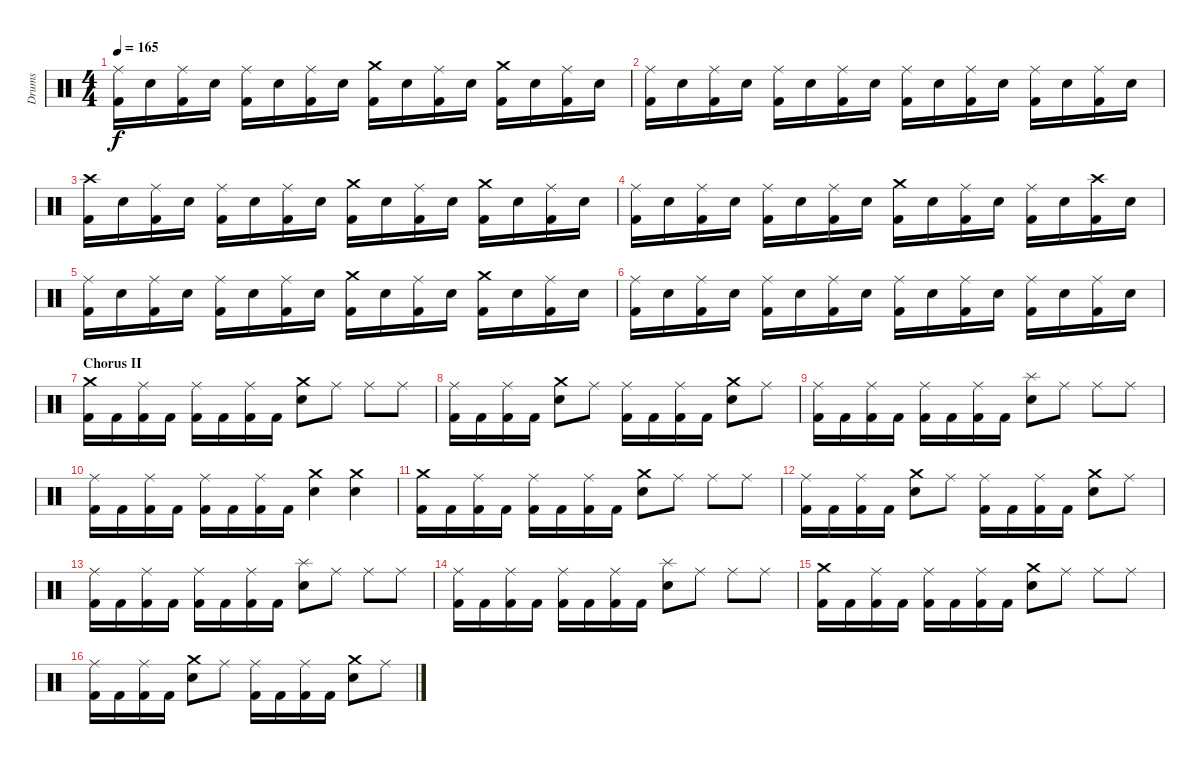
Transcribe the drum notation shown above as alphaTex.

\track ("Drums" "Drums") {instrument percussion}
\staff {score}
\articulation defaults
\ts (4 4)
\tempo 165
\clef neutral
\ks c
("Kick (hit) 2" "Ride (middle)").16{dy f} "Electric Snare (hit)".16 ("Kick (hit) 2" "Ride (middle)").16 "Electric Snare (hit)".16 ("Kick (hit) 2" "Ride (middle)").16 "Electric Snare (hit)".16 ("Kick (hit) 2" "Ride (middle)").16 "Electric Snare (hit)".16 ("Kick (hit) 2" "Crash medium (hit)").16 "Electric Snare (hit)".16 ("Kick (hit) 2" "Ride (middle)").16 "Electric Snare (hit)".16 ("Kick (hit) 2" "Crash medium (hit)").16 "Electric Snare (hit)".16 ("Kick (hit) 2" "Ride (middle)").16 "Electric Snare (hit)".16 |
("Kick (hit) 2" "Ride (middle)").16 "Electric Snare (hit)".16 ("Kick (hit) 2" "Ride (middle)").16 "Electric Snare (hit)".16 ("Kick (hit) 2" "Ride (middle)").16 "Electric Snare (hit)".16 ("Kick (hit) 2" "Ride (middle)").16 "Electric Snare (hit)".16 ("Kick (hit) 2" "Ride (middle)").16 "Electric Snare (hit)".16 ("Kick (hit) 2" "Ride (middle)").16 "Electric Snare (hit)".16 ("Kick (hit) 2" "Ride (middle)").16 "Electric Snare (hit)".16 ("Kick (hit) 2" "Ride (middle)").16 "Electric Snare (hit)".16 |
("Kick (hit) 2" "Crash high (hit)").16 "Electric Snare (hit)".16 ("Kick (hit) 2" "Ride (middle)").16 "Electric Snare (hit)".16 ("Kick (hit) 2" "Ride (middle)").16 "Electric Snare (hit)".16 ("Kick (hit) 2" "Ride (middle)").16 "Electric Snare (hit)".16 ("Kick (hit) 2" "Crash medium (hit)").16 "Electric Snare (hit)".16 ("Kick (hit) 2" "Ride (middle)").16 "Electric Snare (hit)".16 ("Kick (hit) 2" "Crash medium (hit)").16 "Electric Snare (hit)".16 ("Kick (hit) 2" "Ride (middle)").16 "Electric Snare (hit)".16 |
("Kick (hit) 2" "Ride (middle)").16 "Electric Snare (hit)".16 ("Kick (hit) 2" "Ride (middle)").16 "Electric Snare (hit)".16 ("Kick (hit) 2" "Ride (middle)").16 "Electric Snare (hit)".16 ("Kick (hit) 2" "Ride (middle)").16 "Electric Snare (hit)".16 ("Kick (hit) 2" "Crash medium (hit)").16 "Electric Snare (hit)".16 ("Kick (hit) 2" "Ride (middle)").16 "Electric Snare (hit)".16 ("Kick (hit) 2" "Ride (middle)").16 "Electric Snare (hit)".16 ("Kick (hit) 2" "Crash high (hit)").16 "Electric Snare (hit)".16 |
("Kick (hit) 2" "Ride (middle)").16 "Electric Snare (hit)".16 ("Kick (hit) 2" "Ride (middle)").16 "Electric Snare (hit)".16 ("Kick (hit) 2" "Ride (middle)").16 "Electric Snare (hit)".16 ("Kick (hit) 2" "Ride (middle)").16 "Electric Snare (hit)".16 ("Kick (hit) 2" "Crash medium (hit)").16 "Electric Snare (hit)".16 ("Kick (hit) 2" "Ride (middle)").16 "Electric Snare (hit)".16 ("Kick (hit) 2" "Crash medium (hit)").16 "Electric Snare (hit)".16 ("Kick (hit) 2" "Ride (middle)").16 "Electric Snare (hit)".16 |
("Kick (hit) 2" "Ride (middle)").16 "Electric Snare (hit)".16 ("Kick (hit) 2" "Ride (middle)").16 "Electric Snare (hit)".16 ("Kick (hit) 2" "Ride (middle)").16 "Electric Snare (hit)".16 ("Kick (hit) 2" "Ride (middle)").16 "Electric Snare (hit)".16 ("Kick (hit) 2" "Ride (middle)").16 "Electric Snare (hit)".16 ("Kick (hit) 2" "Ride (middle)").16 "Electric Snare (hit)".16 ("Kick (hit) 2" "Ride (middle)").16 "Electric Snare (hit)".16 ("Kick (hit) 2" "Ride (middle)").16 "Electric Snare (hit)".16 |
\section ("" "Chorus II")
("Kick (hit) 2" "Crash medium (hit)").16 "Kick (hit) 2".16 ("Kick (hit) 2" "Ride (middle)").16 "Kick (hit) 2".16 ("Kick (hit) 2" "Ride (middle)").16 "Kick (hit) 2".16 ("Kick (hit) 2" "Ride (middle)").16 "Kick (hit) 2".16 ("Electric Snare (hit)" "Crash medium (hit)").8 "Ride (middle)".8 "Ride (middle)".8 "Ride (middle)".8 |
("Kick (hit) 2" "Ride (middle)").16 "Kick (hit) 2".16 ("Kick (hit) 2" "Ride (middle)").16 "Kick (hit) 2".16 ("Electric Snare (hit)" "Crash medium (hit)").8 "Ride (middle)".8 ("Kick (hit) 2" "Ride (middle)").16 "Kick (hit) 2".16 ("Kick (hit) 2" "Ride (middle)").16 "Kick (hit) 2".16 ("Electric Snare (hit)" "Crash medium (hit)").8 "Ride (middle)".8 |
("Kick (hit) 2" "Ride (middle)").16 "Kick (hit) 2".16 ("Kick (hit) 2" "Ride (middle)").16 "Kick (hit) 2".16 ("Kick (hit) 2" "Ride (middle)").16 "Kick (hit) 2".16 ("Kick (hit) 2" "Ride (middle)").16 "Kick (hit) 2".16 ("Electric Snare (hit)" "Splash (hit)").8 "Ride (middle)".8 "Ride (middle)".8 "Ride (middle)".8 |
("Kick (hit) 2" "Ride (middle)").16 "Kick (hit) 2".16 ("Kick (hit) 2" "Ride (middle)").16 "Kick (hit) 2".16 ("Kick (hit) 2" "Ride (middle)").16 "Kick (hit) 2".16 ("Kick (hit) 2" "Ride (middle)").16 "Kick (hit) 2".16 ("Electric Snare (hit)" "Crash medium (hit)").4 ("Electric Snare (hit)" "Crash medium (hit)").4 |
("Kick (hit) 2" "Crash medium (hit)").16 "Kick (hit) 2".16 ("Kick (hit) 2" "Ride (middle)").16 "Kick (hit) 2".16 ("Kick (hit) 2" "Ride (middle)").16 "Kick (hit) 2".16 ("Kick (hit) 2" "Ride (middle)").16 "Kick (hit) 2".16 ("Electric Snare (hit)" "Crash medium (hit)").8 "Ride (middle)".8 "Ride (middle)".8 "Ride (middle)".8 |
("Kick (hit) 2" "Ride (middle)").16 "Kick (hit) 2".16 ("Kick (hit) 2" "Ride (middle)").16 "Kick (hit) 2".16 ("Electric Snare (hit)" "Crash medium (hit)").8 "Ride (middle)".8 ("Kick (hit) 2" "Ride (middle)").16 "Kick (hit) 2".16 ("Kick (hit) 2" "Ride (middle)").16 "Kick (hit) 2".16 ("Electric Snare (hit)" "Crash medium (hit)").8 "Ride (middle)".8 |
("Kick (hit) 2" "Ride (middle)").16 "Kick (hit) 2".16 ("Kick (hit) 2" "Ride (middle)").16 "Kick (hit) 2".16 ("Kick (hit) 2" "Ride (middle)").16 "Kick (hit) 2".16 ("Kick (hit) 2" "Ride (middle)").16 "Kick (hit) 2".16 ("Electric Snare (hit)" "Splash (hit)").8 "Ride (middle)".8 "Ride (middle)".8 "Ride (middle)".8 |
("Kick (hit) 2" "Ride (middle)").16 "Kick (hit) 2".16 ("Kick (hit) 2" "Ride (middle)").16 "Kick (hit) 2".16 ("Kick (hit) 2" "Ride (middle)").16 "Kick (hit) 2".16 ("Kick (hit) 2" "Ride (middle)").16 "Kick (hit) 2".16 ("Electric Snare (hit)" "Splash (hit)").8 "Ride (middle)".8 "Ride (middle)".8 "Ride (middle)".8 |
("Kick (hit) 2" "Crash medium (hit)").16 "Kick (hit) 2".16 ("Kick (hit) 2" "Ride (middle)").16 "Kick (hit) 2".16 ("Kick (hit) 2" "Ride (middle)").16 "Kick (hit) 2".16 ("Kick (hit) 2" "Ride (middle)").16 "Kick (hit) 2".16 ("Electric Snare (hit)" "Crash medium (hit)").8 "Ride (middle)".8 "Ride (middle)".8 "Ride (middle)".8 |
("Kick (hit) 2" "Ride (middle)").16 "Kick (hit) 2".16 ("Kick (hit) 2" "Ride (middle)").16 "Kick (hit) 2".16 ("Electric Snare (hit)" "Crash medium (hit)").8 "Ride (middle)".8 ("Kick (hit) 2" "Ride (middle)").16 "Kick (hit) 2".16 ("Kick (hit) 2" "Ride (middle)").16 "Kick (hit) 2".16 ("Electric Snare (hit)" "Crash medium (hit)").8 "Ride (middle)".8
